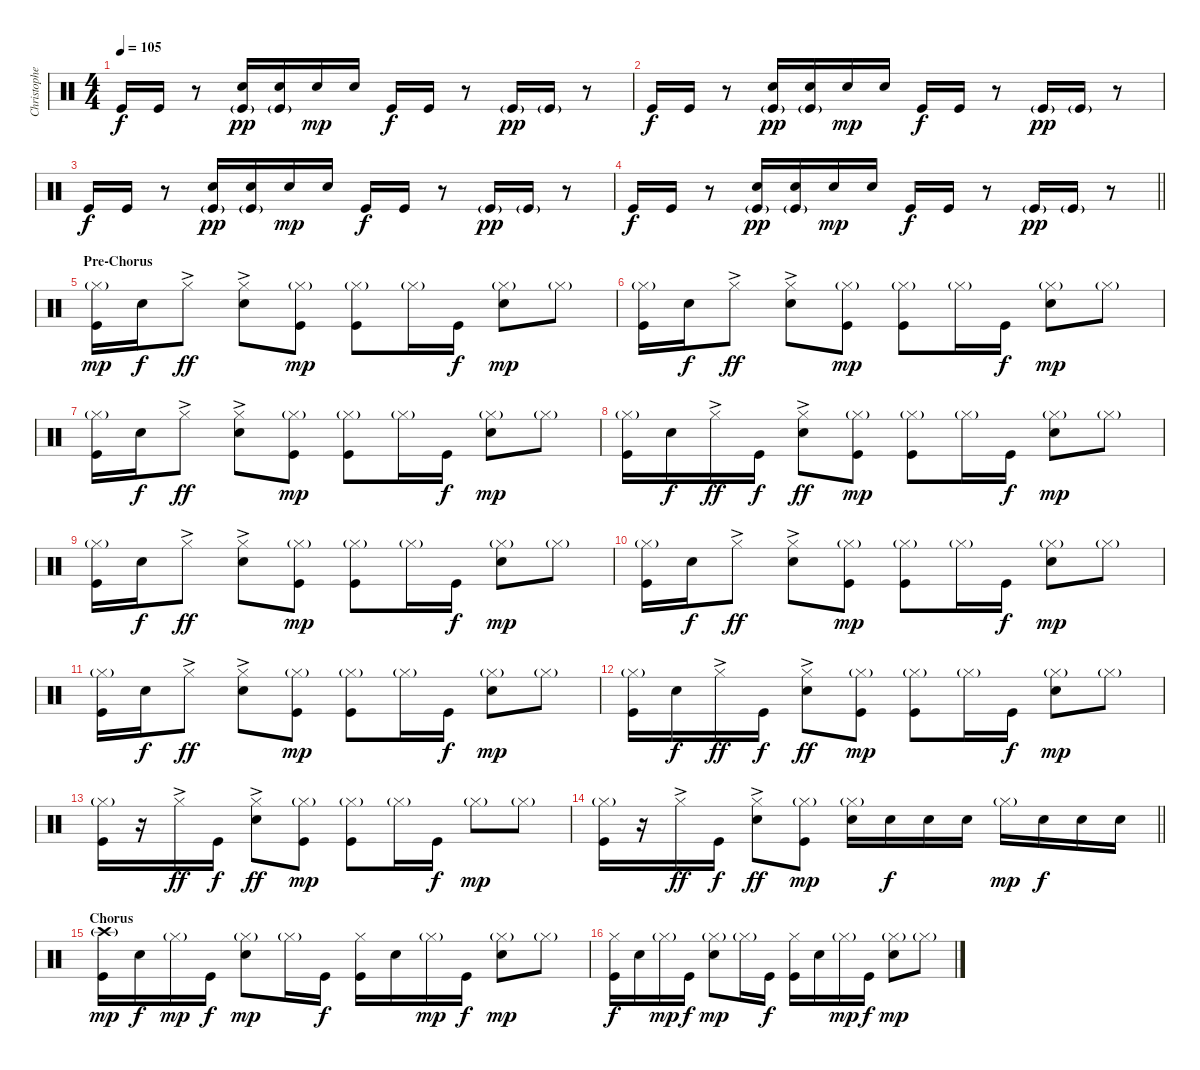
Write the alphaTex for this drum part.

\track ("Christopher - Drums" "Christophe") {mute instrument percussion}
\staff {score}
\articulation defaults
\ts (4 4)
\tempo 105
\clef neutral
\ks c "Kick (hit)".16{dy f} "Kick (hit)".16
r.8 ("Snare (hit) 2" "Kick (hit)"{g}).16{dy pp} ("Snare (hit) 2" "Kick (hit)"{g}).16 "Snare (hit) 2".16{dy mp} "Snare (hit) 2".16 "Kick (hit)".16{dy f} "Kick (hit)".16 r.8 "Kick (hit)"{g}.16{dy pp} "Kick (hit)"{g}.16 r.8 |
"Kick (hit)".16{dy f} "Kick (hit)".16 r.8 ("Snare (hit) 2" "Kick (hit)"{g}).16{dy pp} ("Snare (hit) 2" "Kick (hit)"{g}).16 "Snare (hit) 2".16{dy mp} "Snare (hit) 2".16 "Kick (hit)".16{dy f} "Kick (hit)".16 r.8 "Kick (hit)"{g}.16{dy pp} "Kick (hit)"{g}.16 r.8 |
"Kick (hit)".16{dy f} "Kick (hit)".16 r.8 ("Snare (hit) 2" "Kick (hit)"{g}).16{dy pp} ("Snare (hit) 2" "Kick (hit)"{g}).16 "Snare (hit) 2".16{dy mp} "Snare (hit) 2".16 "Kick (hit)".16{dy f} "Kick (hit)".16 r.8 "Kick (hit)"{g}.16{dy pp} "Kick (hit)"{g}.16 r.8 |
\barLineRight lightlight "Kick (hit)".16{dy f} "Kick (hit)".16
r.8 ("Snare (hit) 2" "Kick (hit)"{g}).16{dy pp} ("Snare (hit) 2" "Kick (hit)"{g}).16 "Snare (hit) 2".16{dy mp} "Snare (hit) 2".16 "Kick (hit)".16{dy f} "Kick (hit)".16 r.8 "Kick (hit)"{g}.16{dy pp} "Kick (hit)"{g}.16 r.8 |
\section ("" "Pre-Chorus")
("Hi-Hat (closed)"{g} "Kick (hit)").16{dy mp} "Snare (hit) 2".16{dy f} "Hi-Hat (closed)"{ac}.8{dy ff} ("Hi-Hat (closed)"{ac} "Snare (hit) 2").8 ("Hi-Hat (closed)"{g} "Kick (hit)").8{dy mp} ("Hi-Hat (closed)"{g} "Kick (hit)").8 "Hi-Hat (closed)"{g}.16 "Kick (hit)".16{dy f} ("Hi-Hat (closed)"{g} "Snare (hit) 2").8{dy mp} "Hi-Hat (closed)"{g}.8 |
("Hi-Hat (closed)"{g} "Kick (hit)").16 "Snare (hit) 2".16{dy f} "Hi-Hat (closed)"{ac}.8{dy ff} ("Hi-Hat (closed)"{ac} "Snare (hit) 2").8 ("Hi-Hat (closed)"{g} "Kick (hit)").8{dy mp} ("Hi-Hat (closed)"{g} "Kick (hit)").8 "Hi-Hat (closed)"{g}.16 "Kick (hit)".16{dy f} ("Hi-Hat (closed)"{g} "Snare (hit) 2").8{dy mp} "Hi-Hat (closed)"{g}.8 |
("Hi-Hat (closed)"{g} "Kick (hit)").16 "Snare (hit) 2".16{dy f} "Hi-Hat (closed)"{ac}.8{dy ff} ("Hi-Hat (closed)"{ac} "Snare (hit) 2").8 ("Hi-Hat (closed)"{g} "Kick (hit)").8{dy mp} ("Hi-Hat (closed)"{g} "Kick (hit)").8 "Hi-Hat (closed)"{g}.16 "Kick (hit)".16{dy f} ("Hi-Hat (closed)"{g} "Snare (hit) 2").8{dy mp} "Hi-Hat (closed)"{g}.8 |
("Hi-Hat (closed)"{g} "Kick (hit)").16 "Snare (hit) 2".16{dy f} "Hi-Hat (closed)"{ac}.16{dy ff} "Kick (hit)".16{dy f} ("Hi-Hat (closed)"{ac} "Snare (hit) 2").8{dy ff} ("Hi-Hat (closed)"{g} "Kick (hit)").8{dy mp} ("Hi-Hat (closed)"{g} "Kick (hit)").8 "Hi-Hat (closed)"{g}.16 "Kick (hit)".16{dy f} ("Hi-Hat (closed)"{g} "Snare (hit) 2").8{dy mp} "Hi-Hat (closed)"{g}.8 |
("Hi-Hat (closed)"{g} "Kick (hit)").16 "Snare (hit) 2".16{dy f} "Hi-Hat (closed)"{ac}.8{dy ff} ("Hi-Hat (closed)"{ac} "Snare (hit) 2").8 ("Hi-Hat (closed)"{g} "Kick (hit)").8{dy mp} ("Hi-Hat (closed)"{g} "Kick (hit)").8 "Hi-Hat (closed)"{g}.16 "Kick (hit)".16{dy f} ("Hi-Hat (closed)"{g} "Snare (hit) 2").8{dy mp} "Hi-Hat (closed)"{g}.8 |
("Hi-Hat (closed)"{g} "Kick (hit)").16 "Snare (hit) 2".16{dy f} "Hi-Hat (closed)"{ac}.8{dy ff} ("Hi-Hat (closed)"{ac} "Snare (hit) 2").8 ("Hi-Hat (closed)"{g} "Kick (hit)").8{dy mp} ("Hi-Hat (closed)"{g} "Kick (hit)").8 "Hi-Hat (closed)"{g}.16 "Kick (hit)".16{dy f} ("Hi-Hat (closed)"{g} "Snare (hit) 2").8{dy mp} "Hi-Hat (closed)"{g}.8 |
("Hi-Hat (closed)"{g} "Kick (hit)").16 "Snare (hit) 2".16{dy f} "Hi-Hat (closed)"{ac}.8{dy ff} ("Hi-Hat (closed)"{ac} "Snare (hit) 2").8 ("Hi-Hat (closed)"{g} "Kick (hit)").8{dy mp} ("Hi-Hat (closed)"{g} "Kick (hit)").8 "Hi-Hat (closed)"{g}.16 "Kick (hit)".16{dy f} ("Hi-Hat (closed)"{g} "Snare (hit) 2").8{dy mp} "Hi-Hat (closed)"{g}.8 |
("Hi-Hat (closed)"{g} "Kick (hit)").16 "Snare (hit) 2".16{dy f} "Hi-Hat (closed)"{ac}.16{dy ff} "Kick (hit)".16{dy f} ("Hi-Hat (closed)"{ac} "Snare (hit) 2").8{dy ff} ("Hi-Hat (closed)"{g} "Kick (hit)").8{dy mp} ("Hi-Hat (closed)"{g} "Kick (hit)").8 "Hi-Hat (closed)"{g}.16 "Kick (hit)".16{dy f} ("Hi-Hat (closed)"{g} "Snare (hit) 2").8{dy mp} "Hi-Hat (closed)"{g}.8 |
("Hi-Hat (closed)"{g} "Kick (hit)").16 r.16 "Hi-Hat (closed)"{ac}.16{dy ff} "Kick (hit)".16{dy f} ("Hi-Hat (closed)"{ac} "Snare (hit) 2").8{dy ff} ("Hi-Hat (closed)"{g} "Kick (hit)").8{dy mp} ("Hi-Hat (closed)"{g} "Kick (hit)").8 "Hi-Hat (closed)"{g}.16 "Kick (hit)".16{dy f} "Hi-Hat (closed)"{g}.8{dy mp} "Hi-Hat (closed)"{g}.8 |
\barLineRight lightlight
("Hi-Hat (closed)"{g} "Kick (hit)").16 r.16 "Hi-Hat (closed)"{ac}.16{dy ff} "Kick (hit)".16{dy f} ("Hi-Hat (closed)"{ac} "Snare (hit) 2").8{dy ff} ("Hi-Hat (closed)"{g} "Kick (hit)").8{dy mp} ("Hi-Hat (closed)"{g} "Snare (hit) 2").16 "Snare (hit) 2".16{dy f} "Snare (hit) 2".16 "Snare (hit) 2".16 "Hi-Hat (closed)"{g}.16{dy mp} "Snare (hit) 2".16{dy f} "Snare (hit) 2".16 "Snare (hit) 2".16 |
\section ("" "Chorus")
("Crash high (hit)"{g} "Kick (hit)").16{dy mp} "Snare (hit) 2".16{dy f} "Hi-Hat (closed)"{g}.16{dy mp} "Kick (hit)".16{dy f} ("Hi-Hat (closed)"{g} "Snare (hit) 2").8{dy mp} "Hi-Hat (closed)"{g}.16 "Kick (hit)".16{dy f} ("Hi-Hat (closed)" "Kick (hit)").16 "Snare (hit) 2".16 "Hi-Hat (closed)"{g}.16{dy mp} "Kick (hit)".16{dy f} ("Hi-Hat (closed)"{g} "Snare (hit) 2").8{dy mp} "Hi-Hat (closed)"{g}.8 |
("Hi-Hat (closed)" "Kick (hit)").16{dy f} "Snare (hit) 2".16 "Hi-Hat (closed)"{g}.16{dy mp} "Kick (hit)".16{dy f} ("Hi-Hat (closed)"{g} "Snare (hit) 2").8{dy mp} "Hi-Hat (closed)"{g}.16 "Kick (hit)".16{dy f} ("Hi-Hat (closed)" "Kick (hit)").16 "Snare (hit) 2".16 "Hi-Hat (closed)"{g}.16{dy mp} "Kick (hit)".16{dy f} ("Hi-Hat (closed)"{g} "Snare (hit) 2").8{dy mp} "Hi-Hat (closed)"{g}.8
